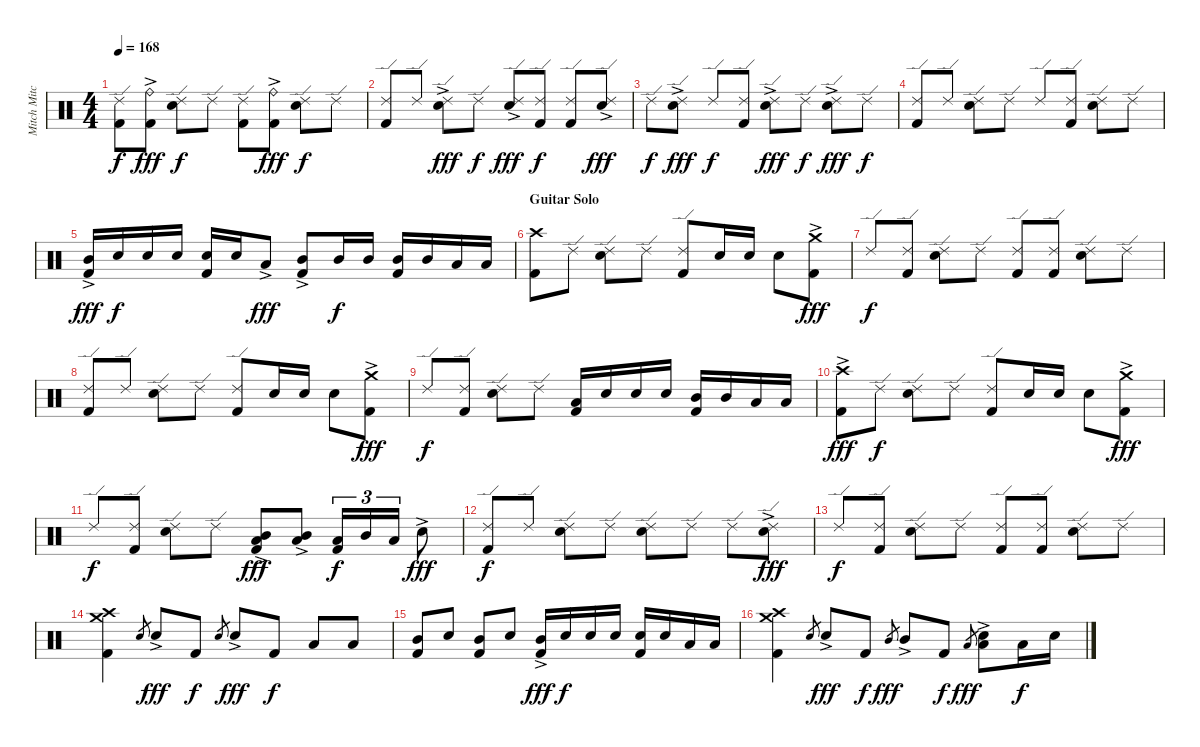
\track ("Mitch Mitchell" "Mitch Mitc") {instrument percussion}
\staff {score}
\articulation defaults
\ts (4 4)
\tempo 168
\clef neutral
\ks c
("Ride (edge) 2" "Kick (hit) 2").8{dy f} ("Ride (bell)"{ac} "Kick (hit) 2"{ac}).8{dy fff} ("Ride (edge) 2" "Snare (hit) 2").8{dy f} "Ride (edge) 2".8 ("Ride (edge) 2" "Kick (hit) 2").8 ("Ride (bell)"{ac} "Kick (hit) 2"{ac}).8{dy fff} ("Ride (edge) 2" "Snare (hit) 2").8{dy f} "Ride (edge) 2".8 |
("Ride (edge) 2" "Kick (hit) 2").8 "Ride (edge) 2".8 ("Ride (edge) 2"{ac} "Snare (hit) 2"{ac}).8{dy fff} "Ride (edge) 2".8{dy f} ("Ride (edge) 2"{ac} "Snare (hit) 2"{ac}).8{dy fff} ("Ride (edge) 2" "Kick (hit) 2").8{dy f} ("Ride (edge) 2" "Kick (hit) 2").8 ("Ride (edge) 2"{ac} "Snare (hit) 2"{ac}).8{dy fff} |
"Ride (edge) 2".8{dy f} ("Ride (edge) 2"{ac} "Snare (hit) 2"{ac}).8{dy fff} "Ride (edge) 2".8{dy f} ("Ride (edge) 2" "Kick (hit) 2").8 ("Ride (edge) 2"{ac} "Snare (hit) 2"{ac}).8{dy fff} "Ride (edge) 2".8{dy f} ("Ride (edge) 2"{ac} "Snare (hit) 2").8{dy fff} "Ride (edge) 2".8{dy f} |
("Ride (edge) 2" "Kick (hit) 2").8 "Ride (edge) 2".8 ("Ride (edge) 2" "Snare (hit) 2").8 "Ride (edge) 2".8 "Ride (edge) 2".8 ("Ride (edge) 2" "Kick (hit) 2").8 ("Ride (edge) 2" "Snare (hit) 2").8 "Ride (edge) 2".8 |
("Mid Tom (hit)"{ac} "Kick (hit) 2").16{dy fff} "Snare (hit) 2".16{dy f} "Snare (hit) 2".16 "Snare (hit) 2".16 ("Snare (hit) 2" "Kick (hit) 2").16 "Snare (hit) 2".16 "Low Tom (hit)"{ac}.8{dy fff} ("Mid Tom (hit)"{ac} "Kick (hit) 2").8 "Mid Tom (hit)".16{dy f} "Mid Tom (hit)".16 ("Mid Tom (hit)" "Kick (hit) 2").16 "Mid Tom (hit)".16 "Low Tom (hit)".16 "Low Tom (hit)".16 |
\section ("" "Guitar Solo")
("Crash high (hit)" "Kick (hit) 2").8 "Ride (edge) 2".8 ("Ride (edge) 2" "Snare (hit) 2").8 "Ride (edge) 2".8 ("Ride (edge) 2" "Kick (hit) 2").8 "Snare (hit) 2".16 "Snare (hit) 2".16 "Snare (hit) 2".8 ("Crash medium (hit)"{ac} "Kick (hit) 2"{ac}).8{dy fff} |
"Ride (edge) 2".8{dy f} ("Ride (edge) 2" "Kick (hit) 2").8 ("Ride (edge) 2" "Snare (hit) 2").8 "Ride (edge) 2".8 ("Ride (edge) 2" "Kick (hit) 2").8 ("Ride (edge) 2" "Kick (hit) 2").8 ("Ride (edge) 2" "Snare (hit) 2").8 "Ride (edge) 2".8 |
("Ride (edge) 2" "Kick (hit) 2").8 "Ride (edge) 2".8 ("Ride (edge) 2" "Snare (hit) 2").8 "Ride (edge) 2".8 ("Ride (edge) 2" "Kick (hit) 2").8 "Snare (hit) 2".16 "Snare (hit) 2".16 "Snare (hit) 2".8 ("Crash medium (hit)"{ac} "Kick (hit) 2"{ac}).8{dy fff} |
"Ride (edge) 2".8{dy f} ("Ride (edge) 2" "Kick (hit) 2").8 ("Ride (edge) 2" "Snare (hit) 2").8 "Ride (edge) 2".8 ("Low Tom (hit)" "Kick (hit) 2").16 "Snare (hit) 2".16 "Snare (hit) 2".16 "Snare (hit) 2".16 ("Mid Tom (hit)" "Kick (hit) 2").16 "Mid Tom (hit)".16 "Low Tom (hit)".16 "Low Tom (hit)".16 |
("Crash high (hit)"{ac} "Kick (hit) 2"{ac}).8{dy fff} "Ride (edge) 2".8{dy f} ("Ride (edge) 2" "Snare (hit) 2").8 "Ride (edge) 2".8 ("Ride (edge) 2" "Kick (hit) 2").8 "Snare (hit) 2".16 "Snare (hit) 2".16 "Snare (hit) 2".8 ("Crash medium (hit)"{ac} "Kick (hit) 2"{ac}).8{dy fff} |
"Ride (edge) 2".8{dy f} ("Ride (edge) 2" "Kick (hit) 2").8 ("Ride (edge) 2" "Snare (hit) 2").8 "Ride (edge) 2".8 ("Mid Tom (hit)"{ac} "Low Tom (hit)"{ac} "Kick (hit) 2").8{dy fff} ("Mid Tom (hit)"{ac} "Low Tom (hit)"{ac}).8 ("Low Tom (hit)" "Kick (hit) 2").16{tu (3 2) dy f} "Mid Tom (hit)".16{tu (3 2)} "Low Tom (hit)".16{tu (3 2)} "Snare (hit) 2"{ac}.8{dy fff} |
("Ride (edge) 2" "Kick (hit) 2").8{dy f} "Ride (edge) 2".8 ("Ride (edge) 2" "Snare (hit) 2").8 "Ride (edge) 2".8 ("Ride (edge) 2" "Snare (hit) 2").8 "Ride (edge) 2".8 "Ride (edge) 2".8 ("Ride (edge) 2"{ac} "Snare (hit) 2"{ac}).8{dy fff} |
"Ride (edge) 2".8{dy f} ("Ride (edge) 2" "Kick (hit) 2").8 ("Ride (edge) 2" "Snare (hit) 2").8 "Ride (edge) 2".8 ("Ride (edge) 2" "Kick (hit) 2").8 ("Ride (edge) 2" "Kick (hit) 2").8 ("Ride (edge) 2" "Snare (hit) 2").8 "Ride (edge) 2".8 |
("Crash high (hit)" "Crash medium (hit)" "Kick (hit) 2").4 "Snare (hit) 2".8{gr} "Snare (hit) 2"{ac}.8{dy fff} "Kick (hit) 2".8{dy f} "Snare (hit) 2".8{gr} "Snare (hit) 2"{ac}.8{dy fff} "Kick (hit) 2".8{dy f} "Low Tom (hit)".8 "Low Tom (hit)".8 |
("Mid Tom (hit)" "Kick (hit) 2").8 "Snare (hit) 2".8 ("Mid Tom (hit)" "Kick (hit) 2").8 "Snare (hit) 2".8 ("Mid Tom (hit)"{ac} "Kick (hit) 2").16{dy fff} "Snare (hit) 2".16{dy f} "Snare (hit) 2".16 "Snare (hit) 2".16 ("Snare (hit) 2" "Kick (hit) 2").16 "Snare (hit) 2".16 "Low Tom (hit)".16 "Low Tom (hit)".16 |
("Crash high (hit)" "Crash medium (hit)" "Kick (hit) 2").4 "Snare (hit) 2".8{gr} "Snare (hit) 2"{ac}.8{dy fff} "Kick (hit) 2".8{dy f} "Mid Tom (hit)".8{gr dy fff} "Mid Tom (hit)"{ac}.8 "Kick (hit) 2".8{dy f} "Low Tom (hit)".8{gr dy fff} ("Snare (hit) 2" "Low Tom (hit)"{ac}).8 "Low Tom (hit)".16{dy f} "Snare (hit) 2".16
